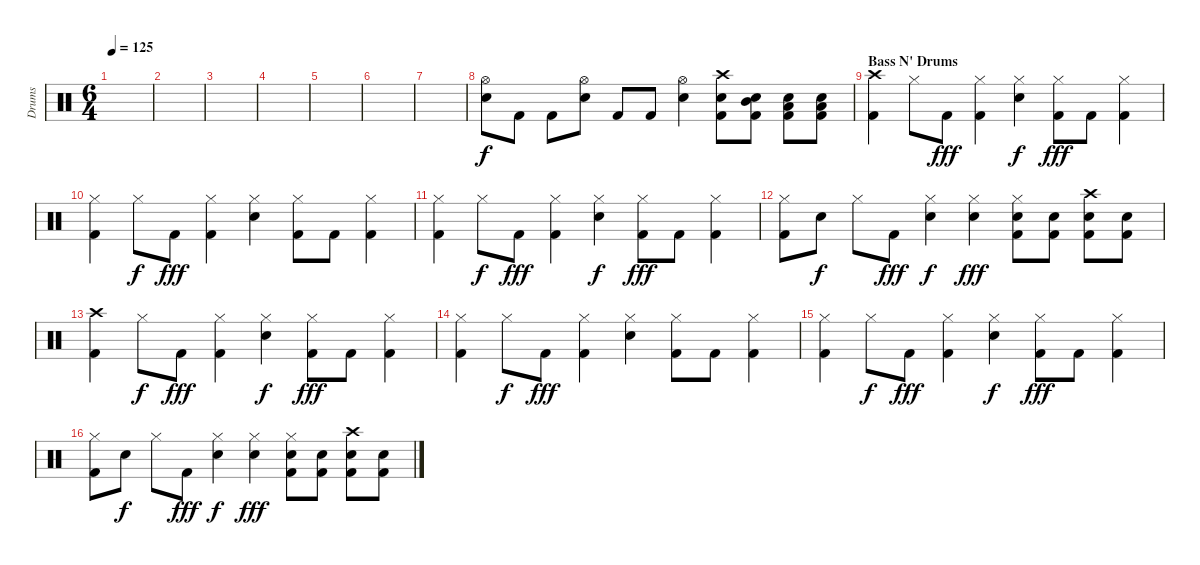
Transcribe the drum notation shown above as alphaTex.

\track ("Drums" "Drums") {instrument percussion}
\staff {score}
\articulation defaults
\ts (6 4)
\tempo 125
\clef neutral
\ks c
|
|
|
|
|
|
|
("Hi-Hat (open)" "Snare (hit) 2").8 "Kick (hit) 2".8 "Kick (hit) 2".8 ("Hi-Hat (open)" "Snare (hit) 2").8 "Kick (hit) 2".8 "Kick (hit) 2".8 ("Hi-Hat (open)" "Snare (hit) 2").4 ("Crash high (hit)" "Snare (hit) 2" "Kick (hit) 2").8 ("Snare (hit) 2" "Mid Tom (hit)" "Kick (hit) 2").8 ("Snare (hit) 2" "Low Tom (hit)" "Kick (hit) 2").8 ("Snare (hit) 2" "Low Tom (hit)" "Kick (hit) 2").8 |
\section ("" "Bass N' Drums")
("Crash high (hit)" "Kick (hit) 2").4 "Hi-Hat (closed)".8{dy f} "Kick (hit) 2".8{dy fff} ("Hi-Hat (closed)" "Kick (hit) 2").4 ("Hi-Hat (closed)" "Snare (hit) 2").4{dy f} ("Hi-Hat (closed)" "Kick (hit) 2").8{dy fff} "Kick (hit) 2".8 ("Hi-Hat (closed)" "Kick (hit) 2").4 |
("Hi-Hat (closed)" "Kick (hit) 2").4 "Hi-Hat (closed)".8{dy f} "Kick (hit) 2".8{dy fff} ("Hi-Hat (closed)" "Kick (hit) 2").4 ("Hi-Hat (closed)" "Snare (hit) 2").4 ("Hi-Hat (closed)" "Kick (hit) 2").8 "Kick (hit) 2".8 ("Hi-Hat (closed)" "Kick (hit) 2").4 |
("Hi-Hat (closed)" "Kick (hit) 2").4 "Hi-Hat (closed)".8{dy f} "Kick (hit) 2".8{dy fff} ("Hi-Hat (closed)" "Kick (hit) 2").4 ("Hi-Hat (closed)" "Snare (hit) 2").4{dy f} ("Hi-Hat (closed)" "Kick (hit) 2").8{dy fff} "Kick (hit) 2".8 ("Hi-Hat (closed)" "Kick (hit) 2").4 |
("Hi-Hat (closed)" "Kick (hit) 2").8 "Snare (hit) 2".8{dy f} "Hi-Hat (closed)".8 "Kick (hit) 2".8{dy fff} ("Hi-Hat (closed)" "Snare (hit) 2").4{dy f} ("Hi-Hat (closed)" "Snare (hit) 2").4{dy fff} ("Hi-Hat (closed)" "Snare (hit) 2" "Kick (hit) 2").8 ("Snare (hit) 2" "Kick (hit) 2").8 ("Crash high (hit)" "Snare (hit) 2" "Kick (hit) 2").8 ("Snare (hit) 2" "Kick (hit) 2").8 |
("Crash high (hit)" "Kick (hit) 2").4 "Hi-Hat (closed)".8{dy f} "Kick (hit) 2".8{dy fff} ("Hi-Hat (closed)" "Kick (hit) 2").4 ("Hi-Hat (closed)" "Snare (hit) 2").4{dy f} ("Hi-Hat (closed)" "Kick (hit) 2").8{dy fff} "Kick (hit) 2".8 ("Hi-Hat (closed)" "Kick (hit) 2").4 |
("Hi-Hat (closed)" "Kick (hit) 2").4 "Hi-Hat (closed)".8{dy f} "Kick (hit) 2".8{dy fff} ("Hi-Hat (closed)" "Kick (hit) 2").4 ("Hi-Hat (closed)" "Snare (hit) 2").4 ("Hi-Hat (closed)" "Kick (hit) 2").8 "Kick (hit) 2".8 ("Hi-Hat (closed)" "Kick (hit) 2").4 |
("Hi-Hat (closed)" "Kick (hit) 2").4 "Hi-Hat (closed)".8{dy f} "Kick (hit) 2".8{dy fff} ("Hi-Hat (closed)" "Kick (hit) 2").4 ("Hi-Hat (closed)" "Snare (hit) 2").4{dy f} ("Hi-Hat (closed)" "Kick (hit) 2").8{dy fff} "Kick (hit) 2".8 ("Hi-Hat (closed)" "Kick (hit) 2").4 |
("Hi-Hat (closed)" "Kick (hit) 2").8 "Snare (hit) 2".8{dy f} "Hi-Hat (closed)".8 "Kick (hit) 2".8{dy fff} ("Hi-Hat (closed)" "Snare (hit) 2").4{dy f} ("Hi-Hat (closed)" "Snare (hit) 2").4{dy fff} ("Hi-Hat (closed)" "Snare (hit) 2" "Kick (hit) 2").8 ("Snare (hit) 2" "Kick (hit) 2").8 ("Crash high (hit)" "Snare (hit) 2" "Kick (hit) 2").8 ("Snare (hit) 2" "Kick (hit) 2").8
